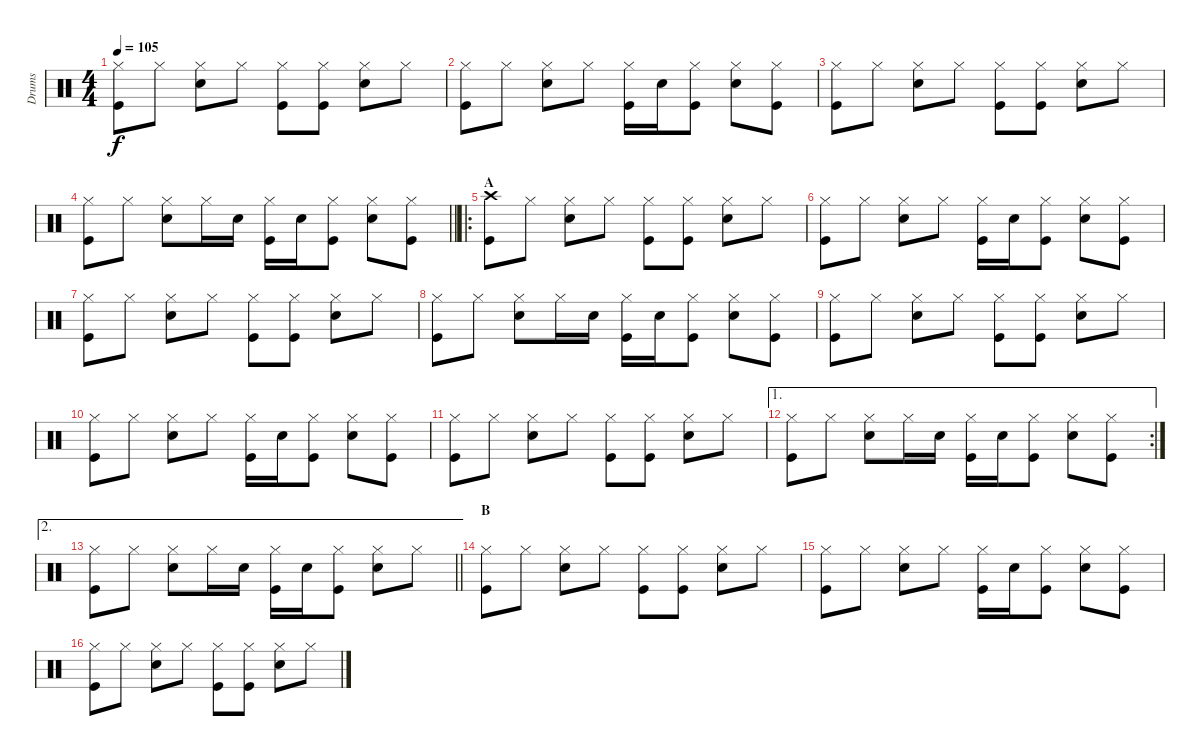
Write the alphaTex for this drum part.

\track ("Drums" "Drums") {instrument percussion}
\staff {score}
\articulation defaults
\ts (4 4)
\tempo 105
\clef neutral
\ks c
("Hi-Hat (closed)" "Kick (hit)").8{dy f} "Hi-Hat (closed)".8 ("Hi-Hat (closed)" "Electric Snare (hit)").8 "Hi-Hat (closed)".8 ("Hi-Hat (closed)" "Kick (hit)").8 ("Hi-Hat (closed)" "Kick (hit)").8 ("Hi-Hat (closed)" "Electric Snare (hit)").8 "Hi-Hat (closed)".8 |
("Hi-Hat (closed)" "Kick (hit)").8 "Hi-Hat (closed)".8 ("Hi-Hat (closed)" "Electric Snare (hit)").8 "Hi-Hat (closed)".8 ("Hi-Hat (closed)" "Kick (hit)").16 "Electric Snare (hit)".16 ("Hi-Hat (closed)" "Kick (hit)").8 ("Hi-Hat (closed)" "Electric Snare (hit)").8 ("Hi-Hat (closed)" "Kick (hit)").8 |
("Hi-Hat (closed)" "Kick (hit)").8 "Hi-Hat (closed)".8 ("Hi-Hat (closed)" "Electric Snare (hit)").8 "Hi-Hat (closed)".8 ("Hi-Hat (closed)" "Kick (hit)").8 ("Hi-Hat (closed)" "Kick (hit)").8 ("Hi-Hat (closed)" "Electric Snare (hit)").8 "Hi-Hat (closed)".8 |
\barLineRight lightlight
("Hi-Hat (closed)" "Kick (hit)").8 "Hi-Hat (closed)".8 ("Hi-Hat (closed)" "Electric Snare (hit)").8 "Hi-Hat (closed)".16 "Electric Snare (hit)".16 ("Hi-Hat (closed)" "Kick (hit)").16 "Electric Snare (hit)".16 ("Hi-Hat (closed)" "Kick (hit)").8 ("Hi-Hat (closed)" "Electric Snare (hit)").8 ("Hi-Hat (closed)" "Kick (hit)").8 |
\ro
\section ("" "A")
("Crash high (hit)" "Kick (hit)").8 "Hi-Hat (closed)".8 ("Hi-Hat (closed)" "Electric Snare (hit)").8 "Hi-Hat (closed)".8 ("Hi-Hat (closed)" "Kick (hit)").8 ("Hi-Hat (closed)" "Kick (hit)").8 ("Hi-Hat (closed)" "Electric Snare (hit)").8 "Hi-Hat (closed)".8 |
("Hi-Hat (closed)" "Kick (hit)").8 "Hi-Hat (closed)".8 ("Hi-Hat (closed)" "Electric Snare (hit)").8 "Hi-Hat (closed)".8 ("Hi-Hat (closed)" "Kick (hit)").16 "Electric Snare (hit)".16 ("Hi-Hat (closed)" "Kick (hit)").8 ("Hi-Hat (closed)" "Electric Snare (hit)").8 ("Hi-Hat (closed)" "Kick (hit)").8 |
("Hi-Hat (closed)" "Kick (hit)").8 "Hi-Hat (closed)".8 ("Hi-Hat (closed)" "Electric Snare (hit)").8 "Hi-Hat (closed)".8 ("Hi-Hat (closed)" "Kick (hit)").8 ("Hi-Hat (closed)" "Kick (hit)").8 ("Hi-Hat (closed)" "Electric Snare (hit)").8 "Hi-Hat (closed)".8 |
("Hi-Hat (closed)" "Kick (hit)").8 "Hi-Hat (closed)".8 ("Hi-Hat (closed)" "Electric Snare (hit)").8 "Hi-Hat (closed)".16 "Electric Snare (hit)".16 ("Hi-Hat (closed)" "Kick (hit)").16 "Electric Snare (hit)".16 ("Hi-Hat (closed)" "Kick (hit)").8 ("Hi-Hat (closed)" "Electric Snare (hit)").8 ("Hi-Hat (closed)" "Kick (hit)").8 |
("Hi-Hat (closed)" "Kick (hit)").8 "Hi-Hat (closed)".8 ("Hi-Hat (closed)" "Electric Snare (hit)").8 "Hi-Hat (closed)".8 ("Hi-Hat (closed)" "Kick (hit)").8 ("Hi-Hat (closed)" "Kick (hit)").8 ("Hi-Hat (closed)" "Electric Snare (hit)").8 "Hi-Hat (closed)".8 |
("Hi-Hat (closed)" "Kick (hit)").8 "Hi-Hat (closed)".8 ("Hi-Hat (closed)" "Electric Snare (hit)").8 "Hi-Hat (closed)".8 ("Hi-Hat (closed)" "Kick (hit)").16 "Electric Snare (hit)".16 ("Hi-Hat (closed)" "Kick (hit)").8 ("Hi-Hat (closed)" "Electric Snare (hit)").8 ("Hi-Hat (closed)" "Kick (hit)").8 |
("Hi-Hat (closed)" "Kick (hit)").8 "Hi-Hat (closed)".8 ("Hi-Hat (closed)" "Electric Snare (hit)").8 "Hi-Hat (closed)".8 ("Hi-Hat (closed)" "Kick (hit)").8 ("Hi-Hat (closed)" "Kick (hit)").8 ("Hi-Hat (closed)" "Electric Snare (hit)").8 "Hi-Hat (closed)".8 |
\ae 1
\rc 2
("Hi-Hat (closed)" "Kick (hit)").8 "Hi-Hat (closed)".8 ("Hi-Hat (closed)" "Electric Snare (hit)").8 "Hi-Hat (closed)".16 "Electric Snare (hit)".16 ("Hi-Hat (closed)" "Kick (hit)").16 "Electric Snare (hit)".16 ("Hi-Hat (closed)" "Kick (hit)").8 ("Hi-Hat (closed)" "Electric Snare (hit)").8 ("Hi-Hat (closed)" "Kick (hit)").8 |
\ae 2
\barLineRight lightlight
("Hi-Hat (closed)" "Kick (hit)").8 "Hi-Hat (closed)".8 ("Hi-Hat (closed)" "Electric Snare (hit)").8 "Hi-Hat (closed)".16 "Electric Snare (hit)".16 ("Hi-Hat (closed)" "Kick (hit)").16 "Electric Snare (hit)".16 ("Hi-Hat (closed)" "Kick (hit)").8 ("Hi-Hat (closed)" "Electric Snare (hit)").8 "Hi-Hat (closed)".8 |
\section ("" "B")
("Hi-Hat (closed)" "Kick (hit)").8 "Hi-Hat (closed)".8 ("Hi-Hat (closed)" "Electric Snare (hit)").8 "Hi-Hat (closed)".8 ("Hi-Hat (closed)" "Kick (hit)").8 ("Hi-Hat (closed)" "Kick (hit)").8 ("Hi-Hat (closed)" "Electric Snare (hit)").8 "Hi-Hat (closed)".8 |
("Hi-Hat (closed)" "Kick (hit)").8 "Hi-Hat (closed)".8 ("Hi-Hat (closed)" "Electric Snare (hit)").8 "Hi-Hat (closed)".8 ("Hi-Hat (closed)" "Kick (hit)").16 "Electric Snare (hit)".16 ("Hi-Hat (closed)" "Kick (hit)").8 ("Hi-Hat (closed)" "Electric Snare (hit)").8 ("Hi-Hat (closed)" "Kick (hit)").8 |
("Hi-Hat (closed)" "Kick (hit)").8 "Hi-Hat (closed)".8 ("Hi-Hat (closed)" "Electric Snare (hit)").8 "Hi-Hat (closed)".8 ("Hi-Hat (closed)" "Kick (hit)").8 ("Hi-Hat (closed)" "Kick (hit)").8 ("Hi-Hat (closed)" "Electric Snare (hit)").8 "Hi-Hat (closed)".8
